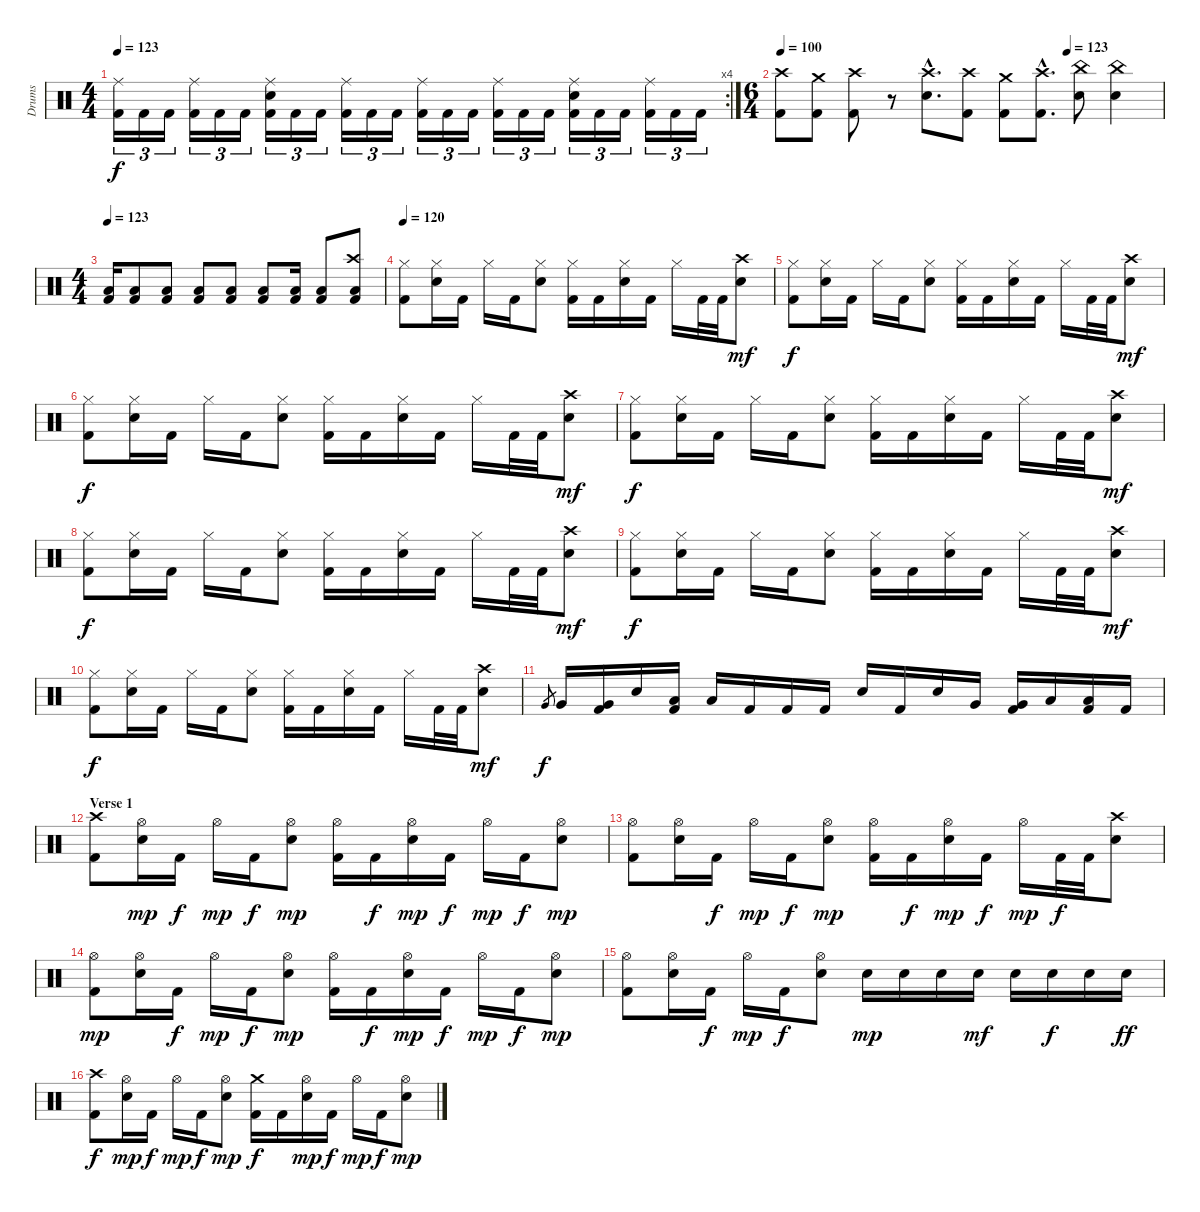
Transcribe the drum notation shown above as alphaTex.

\track ("Drums" "Drums") {instrument percussion}
\staff {score}
\articulation defaults
\rc 4
\ts (4 4)
\tempo 123
\tempo 115
\tempo 123
\clef neutral
\ks c
("Ride (middle)" "Kick (hit) 2").16{tu (3 2) dy f} "Kick (hit) 2".16{tu (3 2)} "Kick (hit) 2".16{tu (3 2)} ("Ride (middle)" "Kick (hit) 2").16{tu (3 2)} "Kick (hit) 2".16{tu (3 2)} "Kick (hit) 2".16{tu (3 2)} ("Ride (middle)" "Snare (hit) 2" "Kick (hit) 2").16{tu (3 2)} "Kick (hit) 2".16{tu (3 2)} "Kick (hit) 2".16{tu (3 2)} ("Ride (middle)" "Kick (hit) 2").16{tu (3 2)} "Kick (hit) 2".16{tu (3 2)} "Kick (hit) 2".16{tu (3 2)} ("Ride (middle)" "Kick (hit) 2").16{tu (3 2)} "Kick (hit) 2".16{tu (3 2)} "Kick (hit) 2".16{tu (3 2)} ("Ride (middle)" "Kick (hit) 2").16{tu (3 2)} "Kick (hit) 2".16{tu (3 2)} "Kick (hit) 2".16{tu (3 2)} ("Ride (middle)" "Snare (hit) 2" "Kick (hit) 2").16{tu (3 2)} "Kick (hit) 2".16{tu (3 2)} "Kick (hit) 2".16{tu (3 2)} ("Ride (middle)" "Kick (hit) 2").16{tu (3 2)} "Kick (hit) 2".16{tu (3 2)} "Kick (hit) 2".16{tu (3 2)} |
\ts (6 4)
\tempo 100
\tempo (123 0.75)
("Crash high (hit)" "Kick (hit) 2").8 ("Crash medium (hit)" "Kick (hit) 2").8 ("Crash high (hit)" "Kick (hit) 2").8 r.8 ("Crash high (hit)"{hac} "Snare (hit) 2"{hac}).8{d} ("Crash high (hit)" "Kick (hit) 2").8 ("Crash medium (hit)" "Kick (hit) 2").8 ("Crash high (hit)"{hac} "Kick (hit) 2"{hac}).8{d} ("China (hit)" "Snare (hit) 2").8 ("China (hit)" "Snare (hit) 2").4 |
\ts (4 4)
\tempo 123
("Low Floor Tom (hit)" "Kick (hit) 2").16 ("Low Floor Tom (hit)" "Kick (hit) 2").8 ("Low Floor Tom (hit)" "Kick (hit) 2").8 ("Low Floor Tom (hit)" "Kick (hit) 2").8 ("Low Floor Tom (hit)" "Kick (hit) 2").8 ("Low Floor Tom (hit)" "Kick (hit) 2").8 ("Low Floor Tom (hit)" "Kick (hit) 2").16 ("Low Floor Tom (hit)" "Kick (hit) 2").8 ("Crash high (hit)" "Low Floor Tom (hit)" "Kick (hit) 2").8 |
\tempo 120
("Hi-Hat (closed)" "Kick (hit) 2").8 ("Hi-Hat (closed)" "Snare (hit) 2").16 "Kick (hit) 2".16 "Hi-Hat (closed)".16 "Kick (hit) 2".16 ("Hi-Hat (closed)" "Snare (hit) 2").8 ("Hi-Hat (closed)" "Kick (hit) 2").16 "Kick (hit) 2".16 ("Hi-Hat (closed)" "Snare (hit) 2").16 "Kick (hit) 2".16 "Hi-Hat (closed)".16 "Kick (hit) 2".32 "Kick (hit) 2".32 ("Crash high (hit)" "Snare (hit) 2").8{dy mf} |
("Hi-Hat (closed)" "Kick (hit) 2").8{dy f} ("Hi-Hat (closed)" "Snare (hit) 2").16 "Kick (hit) 2".16 "Hi-Hat (closed)".16 "Kick (hit) 2".16 ("Hi-Hat (closed)" "Snare (hit) 2").8 ("Hi-Hat (closed)" "Kick (hit) 2").16 "Kick (hit) 2".16 ("Hi-Hat (closed)" "Snare (hit) 2").16 "Kick (hit) 2".16 "Hi-Hat (closed)".16 "Kick (hit) 2".32 "Kick (hit) 2".32 ("Crash high (hit)" "Snare (hit) 2").8{dy mf} |
("Hi-Hat (closed)" "Kick (hit) 2").8{dy f} ("Hi-Hat (closed)" "Snare (hit) 2").16 "Kick (hit) 2".16 "Hi-Hat (closed)".16 "Kick (hit) 2".16 ("Hi-Hat (closed)" "Snare (hit) 2").8 ("Hi-Hat (closed)" "Kick (hit) 2").16 "Kick (hit) 2".16 ("Hi-Hat (closed)" "Snare (hit) 2").16 "Kick (hit) 2".16 "Hi-Hat (closed)".16 "Kick (hit) 2".32 "Kick (hit) 2".32 ("Crash high (hit)" "Snare (hit) 2").8{dy mf} |
("Hi-Hat (closed)" "Kick (hit) 2").8{dy f} ("Hi-Hat (closed)" "Snare (hit) 2").16 "Kick (hit) 2".16 "Hi-Hat (closed)".16 "Kick (hit) 2".16 ("Hi-Hat (closed)" "Snare (hit) 2").8 ("Hi-Hat (closed)" "Kick (hit) 2").16 "Kick (hit) 2".16 ("Hi-Hat (closed)" "Snare (hit) 2").16 "Kick (hit) 2".16 "Hi-Hat (closed)".16 "Kick (hit) 2".32 "Kick (hit) 2".32 ("Crash high (hit)" "Snare (hit) 2").8{dy mf} |
("Hi-Hat (closed)" "Kick (hit) 2").8{dy f} ("Hi-Hat (closed)" "Snare (hit) 2").16 "Kick (hit) 2".16 "Hi-Hat (closed)".16 "Kick (hit) 2".16 ("Hi-Hat (closed)" "Snare (hit) 2").8 ("Hi-Hat (closed)" "Kick (hit) 2").16 "Kick (hit) 2".16 ("Hi-Hat (closed)" "Snare (hit) 2").16 "Kick (hit) 2".16 "Hi-Hat (closed)".16 "Kick (hit) 2".32 "Kick (hit) 2".32 ("Crash high (hit)" "Snare (hit) 2").8{dy mf} |
("Hi-Hat (closed)" "Kick (hit) 2").8{dy f} ("Hi-Hat (closed)" "Snare (hit) 2").16 "Kick (hit) 2".16 "Hi-Hat (closed)".16 "Kick (hit) 2".16 ("Hi-Hat (closed)" "Snare (hit) 2").8 ("Hi-Hat (closed)" "Kick (hit) 2").16 "Kick (hit) 2".16 ("Hi-Hat (closed)" "Snare (hit) 2").16 "Kick (hit) 2".16 "Hi-Hat (closed)".16 "Kick (hit) 2".32 "Kick (hit) 2".32 ("Crash high (hit)" "Snare (hit) 2").8{dy mf} |
("Hi-Hat (closed)" "Kick (hit) 2").8{dy f} ("Hi-Hat (closed)" "Snare (hit) 2").16 "Kick (hit) 2".16 "Hi-Hat (closed)".16 "Kick (hit) 2".16 ("Hi-Hat (closed)" "Snare (hit) 2").8 ("Hi-Hat (closed)" "Kick (hit) 2").16 "Kick (hit) 2".16 ("Hi-Hat (closed)" "Snare (hit) 2").16 "Kick (hit) 2".16 "Hi-Hat (closed)".16 "Kick (hit) 2".32 "Kick (hit) 2".32 ("Crash high (hit)" "Snare (hit) 2").8{dy mf} |
"Very Low Tom (hit)".8{gr dy f} "Very Low Tom (hit)".16 ("Very Low Tom (hit)" "Kick (hit) 2").16 "Snare (hit) 2".16 ("Low Floor Tom (hit)" "Kick (hit) 2").16 "Low Floor Tom (hit)".16 "Kick (hit) 2".16 "Kick (hit) 2".16 "Kick (hit) 2".16 "Snare (hit) 2".16 "Kick (hit) 2".16 "Snare (hit) 2".16 "Very Low Tom (hit)".16 ("Very Low Tom (hit)" "Kick (hit) 2").16 "Low Floor Tom (hit)".16 ("Low Floor Tom (hit)" "Kick (hit) 2").16 "Kick (hit) 2".16 |
\section ("" "Verse 1")
("Crash high (hit)" "Kick (hit) 2").8 ("Hi-Hat (open)" "Snare (hit) 2").16{dy mp} "Kick (hit) 2".16{dy f} "Hi-Hat (open)".16{dy mp} "Kick (hit) 2".16{dy f} ("Hi-Hat (open)" "Snare (hit) 2").8{dy mp} ("Hi-Hat (open)" "Kick (hit) 2").16 "Kick (hit) 2".16{dy f} ("Hi-Hat (open)" "Snare (hit) 2").16{dy mp} "Kick (hit) 2".16{dy f} "Hi-Hat (open)".16{dy mp} "Kick (hit) 2".16{dy f} ("Hi-Hat (open)" "Snare (hit) 2").8{dy mp} |
("Hi-Hat (open)" "Kick (hit) 2").8 ("Hi-Hat (open)" "Snare (hit) 2").16 "Kick (hit) 2".16{dy f} "Hi-Hat (open)".16{dy mp} "Kick (hit) 2".16{dy f} ("Hi-Hat (open)" "Snare (hit) 2").8{dy mp} ("Hi-Hat (open)" "Kick (hit) 2").16 "Kick (hit) 2".16{dy f} ("Hi-Hat (open)" "Snare (hit) 2").16{dy mp} "Kick (hit) 2".16{dy f} "Hi-Hat (open)".16{dy mp} "Kick (hit) 2".32{dy f} "Kick (hit) 2".32 ("Crash high (hit)" "Snare (hit) 2").8 |
("Hi-Hat (open)" "Kick (hit) 2").8{dy mp} ("Hi-Hat (open)" "Snare (hit) 2").16 "Kick (hit) 2".16{dy f} "Hi-Hat (open)".16{dy mp} "Kick (hit) 2".16{dy f} ("Hi-Hat (open)" "Snare (hit) 2").8{dy mp} ("Hi-Hat (open)" "Kick (hit) 2").16 "Kick (hit) 2".16{dy f} ("Hi-Hat (open)" "Snare (hit) 2").16{dy mp} "Kick (hit) 2".16{dy f} "Hi-Hat (open)".16{dy mp} "Kick (hit) 2".16{dy f} ("Hi-Hat (open)" "Snare (hit) 2").8{dy mp} |
("Hi-Hat (open)" "Kick (hit) 2").8 ("Hi-Hat (open)" "Snare (hit) 2").16 "Kick (hit) 2".16{dy f} "Hi-Hat (open)".16{dy mp} "Kick (hit) 2".16{dy f} ("Hi-Hat (open)" "Snare (hit) 2").8 "Snare (hit) 2".16{dy mp} "Snare (hit) 2".16 "Snare (hit) 2".16 "Snare (hit) 2".16{dy mf} "Snare (hit) 2".16 "Snare (hit) 2".16{dy f} "Snare (hit) 2".16 "Snare (hit) 2".16{dy ff} |
("Crash high (hit)" "Kick (hit) 2").8{dy f} ("Hi-Hat (open)" "Snare (hit) 2").16{dy mp} "Kick (hit) 2".16{dy f} "Hi-Hat (open)".16{dy mp} "Kick (hit) 2".16{dy f} ("Hi-Hat (open)" "Snare (hit) 2").8{dy mp} ("Crash medium (hit)" "Kick (hit) 2").16{dy f} "Kick (hit) 2".16 ("Hi-Hat (open)" "Snare (hit) 2").16{dy mp} "Kick (hit) 2".16{dy f} "Hi-Hat (open)".16{dy mp} "Kick (hit) 2".16{dy f} ("Hi-Hat (open)" "Snare (hit) 2").8{dy mp}
